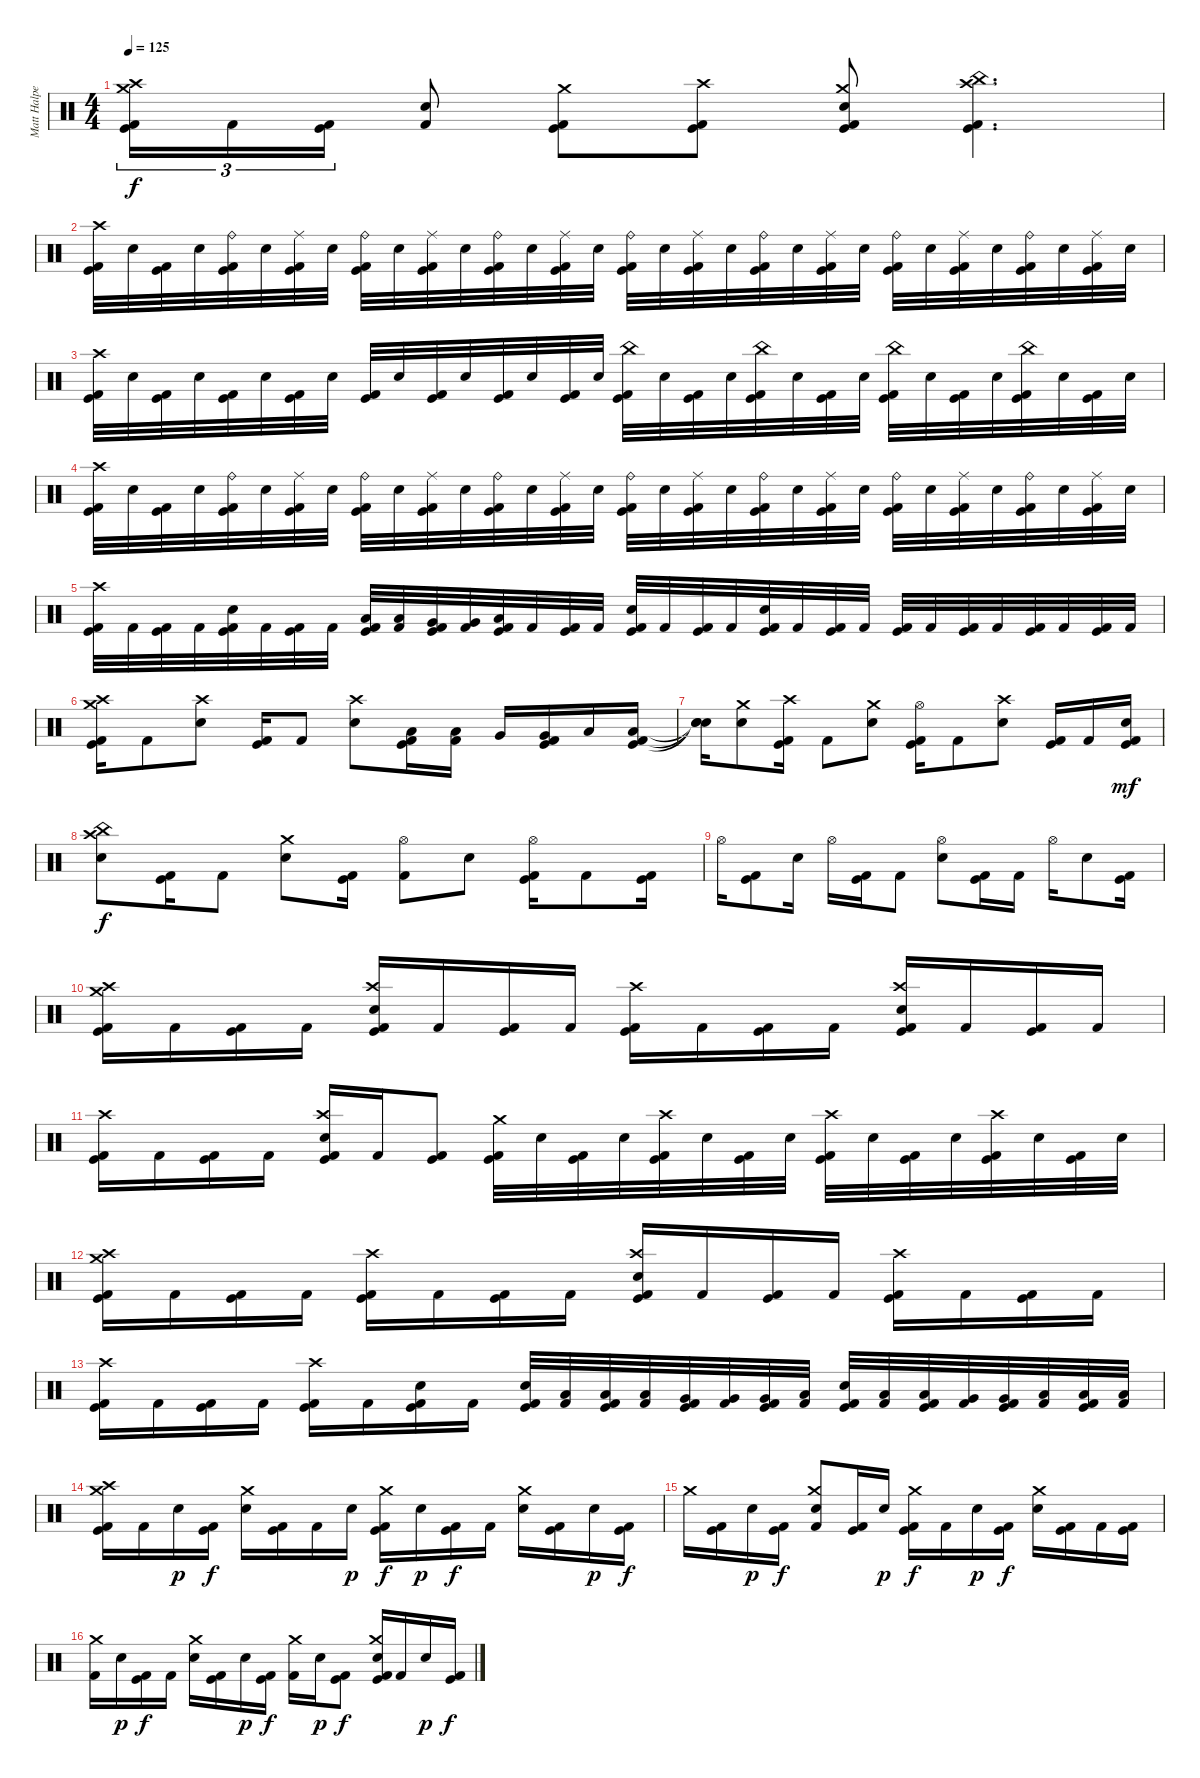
\track ("Matt Halpern" "Matt Halpe") {instrument percussion}
\staff {score}
\articulation defaults
\ts (4 4)
\tempo 125
\clef neutral
\ks c
("Kick (hit) 2" "Kick (hit)" "Crash high (hit)" "Crash medium (hit)").16{tu (3 2) dy f} "Kick (hit) 2".16{tu (3 2)} ("Kick (hit) 2" "Kick (hit)").16{tu (3 2)} ("Kick (hit) 2" "Electric Snare (hit)").8 ("Kick (hit) 2" "Kick (hit)" "Crash medium (hit)").8 ("Kick (hit) 2" "Kick (hit)" "Crash high (hit)").8 ("Kick (hit) 2" "Kick (hit)" "Electric Snare (hit)" "Crash medium (hit)").8 ("Kick (hit) 2" "Kick (hit)" "China (hit)" "Crash high (hit)").4{d} |
("Kick (hit) 2" "Kick (hit)" "Crash high (hit)").32 "Electric Snare (hit)".32 ("Kick (hit) 2" "Kick (hit)").32 "Electric Snare (hit)".32 ("Kick (hit) 2" "Kick (hit)" "Ride (bell)").32 "Electric Snare (hit)".32 ("Kick (hit) 2" "Kick (hit)" "Ride (middle)").32 "Electric Snare (hit)".32 ("Kick (hit) 2" "Kick (hit)" "Ride (bell)").32 "Electric Snare (hit)".32 ("Kick (hit) 2" "Kick (hit)" "Ride (middle)").32 "Electric Snare (hit)".32 ("Kick (hit) 2" "Kick (hit)" "Ride (bell)").32 "Electric Snare (hit)".32 ("Kick (hit) 2" "Kick (hit)" "Ride (middle)").32 "Electric Snare (hit)".32 ("Kick (hit) 2" "Kick (hit)" "Ride (bell)").32 "Electric Snare (hit)".32 ("Kick (hit) 2" "Kick (hit)" "Ride (middle)").32 "Electric Snare (hit)".32 ("Kick (hit) 2" "Kick (hit)" "Ride (bell)").32 "Electric Snare (hit)".32 ("Kick (hit) 2" "Kick (hit)" "Ride (middle)").32 "Electric Snare (hit)".32 ("Kick (hit) 2" "Kick (hit)" "Ride (bell)").32 "Electric Snare (hit)".32 ("Kick (hit) 2" "Kick (hit)" "Ride (middle)").32 "Electric Snare (hit)".32 ("Kick (hit) 2" "Kick (hit)" "Ride (bell)").32 "Electric Snare (hit)".32 ("Kick (hit) 2" "Kick (hit)" "Ride (middle)").32 "Electric Snare (hit)".32 |
("Kick (hit) 2" "Kick (hit)" "Crash high (hit)").32 "Electric Snare (hit)".32 ("Kick (hit) 2" "Kick (hit)").32 "Electric Snare (hit)".32 ("Kick (hit) 2" "Kick (hit)").32 "Electric Snare (hit)".32 ("Kick (hit) 2" "Kick (hit)").32 "Electric Snare (hit)".32 ("Kick (hit) 2" "Kick (hit)").32 "Electric Snare (hit)".32 ("Kick (hit) 2" "Kick (hit)").32 "Electric Snare (hit)".32 ("Kick (hit) 2" "Kick (hit)").32 "Electric Snare (hit)".32 ("Kick (hit) 2" "Kick (hit)").32 "Electric Snare (hit)".32 ("Kick (hit) 2" "Kick (hit)" "China (hit)").32 "Electric Snare (hit)".32 ("Kick (hit) 2" "Kick (hit)").32 "Electric Snare (hit)".32 ("Kick (hit) 2" "Kick (hit)" "China (hit)").32 "Electric Snare (hit)".32 ("Kick (hit) 2" "Kick (hit)").32 "Electric Snare (hit)".32 ("Kick (hit) 2" "Kick (hit)" "China (hit)").32 "Electric Snare (hit)".32 ("Kick (hit) 2" "Kick (hit)").32 "Electric Snare (hit)".32 ("Kick (hit) 2" "Kick (hit)" "China (hit)").32 "Electric Snare (hit)".32 ("Kick (hit) 2" "Kick (hit)").32 "Electric Snare (hit)".32 |
("Kick (hit) 2" "Kick (hit)" "Crash high (hit)").32 "Electric Snare (hit)".32 ("Kick (hit) 2" "Kick (hit)").32 "Electric Snare (hit)".32 ("Kick (hit) 2" "Kick (hit)" "Ride (bell)").32 "Electric Snare (hit)".32 ("Kick (hit) 2" "Kick (hit)" "Ride (middle)").32 "Electric Snare (hit)".32 ("Kick (hit) 2" "Kick (hit)" "Ride (bell)").32 "Electric Snare (hit)".32 ("Kick (hit) 2" "Kick (hit)" "Ride (middle)").32 "Electric Snare (hit)".32 ("Kick (hit) 2" "Kick (hit)" "Ride (bell)").32 "Electric Snare (hit)".32 ("Kick (hit) 2" "Kick (hit)" "Ride (middle)").32 "Electric Snare (hit)".32 ("Kick (hit) 2" "Kick (hit)" "Ride (bell)").32 "Electric Snare (hit)".32 ("Kick (hit) 2" "Kick (hit)" "Ride (middle)").32 "Electric Snare (hit)".32 ("Kick (hit) 2" "Kick (hit)" "Ride (bell)").32 "Electric Snare (hit)".32 ("Kick (hit) 2" "Kick (hit)" "Ride (middle)").32 "Electric Snare (hit)".32 ("Kick (hit) 2" "Kick (hit)" "Ride (bell)").32 "Electric Snare (hit)".32 ("Kick (hit) 2" "Kick (hit)" "Ride (middle)").32 "Electric Snare (hit)".32 ("Kick (hit) 2" "Kick (hit)" "Ride (bell)").32 "Electric Snare (hit)".32 ("Kick (hit) 2" "Kick (hit)" "Ride (middle)").32 "Electric Snare (hit)".32 |
("Kick (hit) 2" "Kick (hit)" "Crash high (hit)").32 "Kick (hit) 2".32 ("Kick (hit) 2" "Kick (hit)").32 "Kick (hit) 2".32 ("Kick (hit) 2" "Kick (hit)" "Electric Snare (hit)").32 "Kick (hit) 2".32 ("Kick (hit) 2" "Kick (hit)").32 "Kick (hit) 2".32 ("Kick (hit) 2" "Kick (hit)" "Low Tom (hit)").32 ("Kick (hit) 2" "Low Tom (hit)").32 ("Kick (hit) 2" "Kick (hit)" "Very Low Tom (hit)").32 ("Kick (hit) 2" "Very Low Tom (hit)").32 ("Kick (hit) 2" "Kick (hit)" "Low Floor Tom (hit)").32 "Kick (hit) 2".32 ("Kick (hit) 2" "Kick (hit)").32 "Kick (hit) 2".32 ("Kick (hit) 2" "Kick (hit)" "Electric Snare (hit)").32 "Kick (hit) 2".32 ("Kick (hit) 2" "Kick (hit)").32 "Kick (hit) 2".32 ("Kick (hit) 2" "Kick (hit)" "Electric Snare (hit)").32 "Kick (hit) 2".32 ("Kick (hit) 2" "Kick (hit)").32 "Kick (hit) 2".32 ("Kick (hit) 2" "Kick (hit)").32 "Kick (hit) 2".32 ("Kick (hit) 2" "Kick (hit)").32 "Kick (hit) 2".32 ("Kick (hit) 2" "Kick (hit)").32 "Kick (hit) 2".32 ("Kick (hit) 2" "Kick (hit)").32 "Kick (hit) 2".32 |
("Kick (hit) 2" "Kick (hit)" "Crash high (hit)" "Crash medium (hit)").16 "Kick (hit) 2".8 ("Electric Snare (hit)" "Crash high (hit)").8 ("Kick (hit) 2" "Kick (hit)").16 "Kick (hit) 2".8 ("Electric Snare (hit)" "Crash high (hit)").8 ("Kick (hit) 2" "Kick (hit)" "Low Tom (hit)").16 ("Kick (hit) 2" "Low Tom (hit)").16 "Very Low Tom (hit)".16 ("Kick (hit) 2" "Kick (hit)" "Very Low Tom (hit)").16 "Low Floor Tom (hit)".16 ("Kick (hit) 2" "Kick (hit)" "Low Floor Tom (hit)").16 |
("Snare (hit)"{t} "Snare (hit)"{t} "Snare (hit)"{t}).16 ("Electric Snare (hit)" "Crash medium (hit)").8 ("Kick (hit) 2" "Kick (hit)" "Crash high (hit)").16 "Kick (hit) 2".8 ("Electric Snare (hit)" "Crash medium (hit)").8 ("Kick (hit) 2" "Kick (hit)" "Hi-Hat (open)").16 "Kick (hit) 2".8 ("Electric Snare (hit)" "Crash high (hit)").8 ("Kick (hit) 2" "Kick (hit)").16 "Kick (hit) 2".16 ("Kick (hit) 2" "Kick (hit)" "Electric Snare (hit)").16{dy mf} |
("Electric Snare (hit)" "China (hit)" "Crash high (hit)").8{dy f} ("Kick (hit) 2" "Kick (hit)").16 "Kick (hit) 2".8 ("Electric Snare (hit)" "Crash medium (hit)").8 ("Kick (hit) 2" "Kick (hit)").16 ("Kick (hit) 2" "Hi-Hat (open)").8 "Electric Snare (hit)".8 ("Kick (hit) 2" "Kick (hit)" "Hi-Hat (open)").16 "Kick (hit) 2".8 ("Kick (hit) 2" "Kick (hit)").16 |
"Hi-Hat (open)".16 ("Kick (hit) 2" "Kick (hit)").8 "Electric Snare (hit)".16 "Hi-Hat (open)".16 ("Kick (hit) 2" "Kick (hit)").16 "Kick (hit) 2".8 ("Electric Snare (hit)" "Hi-Hat (open)").8 ("Kick (hit) 2" "Kick (hit)").16 "Kick (hit) 2".16 "Hi-Hat (open)".16 "Electric Snare (hit)".8 ("Kick (hit) 2" "Kick (hit)").16 |
("Kick (hit) 2" "Kick (hit)" "Crash high (hit)" "Crash medium (hit)").16 "Kick (hit) 2".16 ("Kick (hit) 2" "Kick (hit)").16 "Kick (hit) 2".16 ("Kick (hit) 2" "Kick (hit)" "Electric Snare (hit)" "Crash high (hit)").16 "Kick (hit) 2".16 ("Kick (hit) 2" "Kick (hit)").16 "Kick (hit) 2".16 ("Kick (hit) 2" "Kick (hit)" "Crash high (hit)").16 "Kick (hit) 2".16 ("Kick (hit) 2" "Kick (hit)").16 "Kick (hit) 2".16 ("Kick (hit) 2" "Kick (hit)" "Electric Snare (hit)" "Crash high (hit)").16 "Kick (hit) 2".16 ("Kick (hit) 2" "Kick (hit)").16 "Kick (hit) 2".16 |
("Kick (hit) 2" "Kick (hit)" "Crash high (hit)").16 "Kick (hit) 2".16 ("Kick (hit) 2" "Kick (hit)").16 "Kick (hit) 2".16 ("Kick (hit) 2" "Kick (hit)" "Electric Snare (hit)" "Crash high (hit)").16 "Kick (hit) 2".16 ("Kick (hit) 2" "Kick (hit)").8 ("Kick (hit) 2" "Kick (hit)" "Crash medium (hit)").32 "Electric Snare (hit)".32 ("Kick (hit) 2" "Kick (hit)").32 "Electric Snare (hit)".32 ("Kick (hit) 2" "Kick (hit)" "Crash high (hit)").32 "Electric Snare (hit)".32 ("Kick (hit) 2" "Kick (hit)").32 "Electric Snare (hit)".32 ("Kick (hit) 2" "Kick (hit)" "Crash high (hit)").32 "Electric Snare (hit)".32 ("Kick (hit) 2" "Kick (hit)").32 "Electric Snare (hit)".32 ("Kick (hit) 2" "Kick (hit)" "Crash high (hit)").32 "Electric Snare (hit)".32 ("Kick (hit) 2" "Kick (hit)").32 "Electric Snare (hit)".32 |
("Kick (hit) 2" "Kick (hit)" "Crash high (hit)" "Crash medium (hit)").16 "Kick (hit) 2".16 ("Kick (hit) 2" "Kick (hit)").16 "Kick (hit) 2".16 ("Kick (hit) 2" "Kick (hit)" "Crash high (hit)").16 "Kick (hit) 2".16 ("Kick (hit) 2" "Kick (hit)").16 "Kick (hit) 2".16 ("Kick (hit) 2" "Kick (hit)" "Electric Snare (hit)" "Crash high (hit)").16 "Kick (hit) 2".16 ("Kick (hit) 2" "Kick (hit)").16 "Kick (hit) 2".16 ("Kick (hit) 2" "Kick (hit)" "Crash high (hit)").16 "Kick (hit) 2".16 ("Kick (hit) 2" "Kick (hit)").16 "Kick (hit) 2".16 |
("Kick (hit) 2" "Kick (hit)" "Crash high (hit)").16 "Kick (hit) 2".16 ("Kick (hit) 2" "Kick (hit)").16 "Kick (hit) 2".16 ("Kick (hit) 2" "Kick (hit)" "Crash high (hit)").16 "Kick (hit) 2".16 ("Kick (hit) 2" "Kick (hit)" "Electric Snare (hit)").16 "Kick (hit) 2".16 ("Kick (hit) 2" "Kick (hit)" "Electric Snare (hit)").32 ("Kick (hit) 2" "Low Tom (hit)").32 ("Kick (hit) 2" "Kick (hit)" "Low Tom (hit)").32 ("Kick (hit) 2" "Low Tom (hit)").32 ("Kick (hit) 2" "Kick (hit)" "Very Low Tom (hit)").32 ("Kick (hit) 2" "Very Low Tom (hit)").32 ("Kick (hit) 2" "Kick (hit)" "Very Low Tom (hit)").32 ("Kick (hit) 2" "Low Floor Tom (hit)").32 ("Kick (hit) 2" "Kick (hit)" "Electric Snare (hit)").32 ("Kick (hit) 2" "Low Tom (hit)").32 ("Kick (hit) 2" "Kick (hit)" "Low Tom (hit)").32 ("Kick (hit) 2" "Very Low Tom (hit)").32 ("Kick (hit) 2" "Kick (hit)" "Very Low Tom (hit)").32 ("Kick (hit) 2" "Low Floor Tom (hit)").32 ("Kick (hit) 2" "Kick (hit)" "Low Floor Tom (hit)").32 ("Kick (hit) 2" "Low Floor Tom (hit)").32 |
("Kick (hit) 2" "Kick (hit)" "Crash high (hit)" "Crash medium (hit)").16 "Kick (hit) 2".16 "Electric Snare (hit)".16{dy p} ("Kick (hit) 2" "Kick (hit)").16{dy f} ("Electric Snare (hit)" "Crash medium (hit)").16 ("Kick (hit) 2" "Kick (hit)").16 "Kick (hit) 2".16 "Electric Snare (hit)".16{dy p} ("Kick (hit) 2" "Kick (hit)" "Crash medium (hit)").16{dy f} "Electric Snare (hit)".16{dy p} ("Kick (hit) 2" "Kick (hit)").16{dy f} "Kick (hit) 2".16 ("Electric Snare (hit)" "Crash medium (hit)").16 ("Kick (hit) 2" "Kick (hit)").16 "Electric Snare (hit)".16{dy p} ("Kick (hit) 2" "Kick (hit)").16{dy f} |
"Crash medium (hit)".16 ("Kick (hit) 2" "Kick (hit)").16 "Electric Snare (hit)".16{dy p} ("Kick (hit) 2" "Kick (hit)").16{dy f} ("Kick (hit) 2" "Electric Snare (hit)" "Crash medium (hit)").8 ("Kick (hit) 2" "Kick (hit)").16 "Electric Snare (hit)".16{dy p} ("Kick (hit) 2" "Kick (hit)" "Crash medium (hit)").16{dy f} "Kick (hit) 2".16 "Electric Snare (hit)".16{dy p} ("Kick (hit) 2" "Kick (hit)").16{dy f} ("Electric Snare (hit)" "Crash medium (hit)").16 ("Kick (hit) 2" "Kick (hit)").16 "Kick (hit) 2".16 ("Kick (hit) 2" "Kick (hit)").16 |
("Kick (hit) 2" "Crash medium (hit)").16 "Electric Snare (hit)".16{dy p} ("Kick (hit) 2" "Kick (hit)").16{dy f} "Kick (hit) 2".16 ("Electric Snare (hit)" "Crash medium (hit)").16 ("Kick (hit) 2" "Kick (hit)").16 "Electric Snare (hit)".16{dy p} ("Kick (hit) 2" "Kick (hit)").16{dy f} ("Kick (hit) 2" "Crash medium (hit)").16 "Electric Snare (hit)".16{dy p} ("Kick (hit) 2" "Kick (hit)").8{dy f} ("Kick (hit) 2" "Kick (hit)" "Electric Snare (hit)" "Crash medium (hit)").16 "Kick (hit) 2".16 "Electric Snare (hit)".16{dy p} ("Kick (hit) 2" "Kick (hit)").16{dy f}
